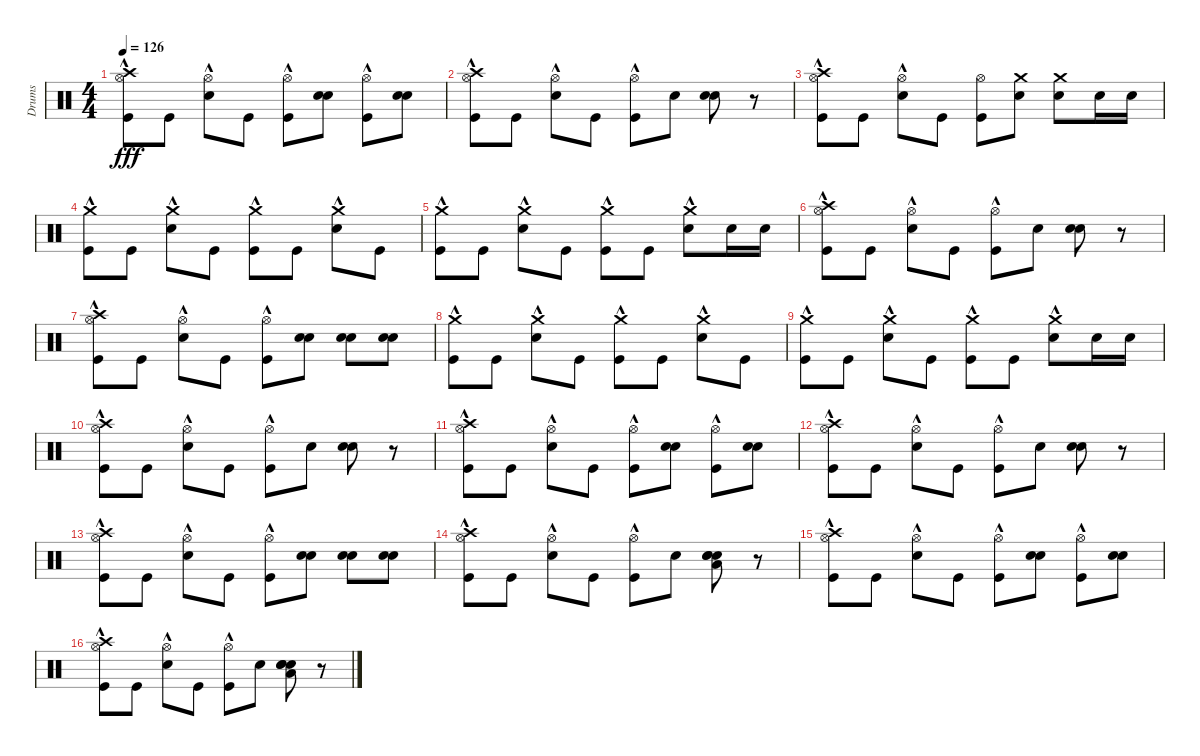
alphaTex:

\track ("Drums" "Drums") {instrument percussion}
\staff {score}
\articulation defaults
\ts (4 4)
\tempo 126
\clef neutral
\ks c
("Crash high (hit)"{hac} "Kick (hit)" "Hi-Hat (open)"{hac}).8{dy fff} "Kick (hit)".8 ("Electric Snare (hit)" "Hi-Hat (open)"{hac}).8 "Kick (hit)".8 ("Hi-Hat (open)"{hac} "Kick (hit)").8 ("Electric Snare (hit)" "Snare (hit) 2").8 ("Kick (hit)" "Hi-Hat (open)"{hac}).8 ("Electric Snare (hit)" "Snare (hit) 2").8 |
("Kick (hit)" "Crash high (hit)"{hac} "Hi-Hat (open)"{hac}).8 "Kick (hit)".8 ("Electric Snare (hit)" "Hi-Hat (open)"{hac}).8 "Kick (hit)".8 ("Hi-Hat (open)"{hac} "Kick (hit)").8 "Electric Snare (hit)".8 ("Snare (hit) 2" "Electric Snare (hit)").8 r.8 |
("Kick (hit)" "Crash high (hit)"{hac} "Hi-Hat (open)"{hac}).8 "Kick (hit)".8 ("Electric Snare (hit)" "Hi-Hat (open)"{hac}).8 "Kick (hit)".8 ("Kick (hit)" "Hi-Hat (open)").8 ("Electric Snare (hit)" "Crash medium (hit)").8 ("Electric Snare (hit)" "Crash medium (hit)").8 "Electric Snare (hit)".16 "Electric Snare (hit)".16 |
("Crash medium (hit)"{hac} "Kick (hit)").8 "Kick (hit)".8 ("Electric Snare (hit)" "Crash medium (hit)"{hac}).8 "Kick (hit)".8 ("Crash medium (hit)"{hac} "Kick (hit)").8 "Kick (hit)".8 ("Electric Snare (hit)" "Crash medium (hit)"{hac}).8 "Kick (hit)".8 |
("Crash medium (hit)"{hac} "Kick (hit)").8 "Kick (hit)".8 ("Crash medium (hit)"{hac} "Electric Snare (hit)").8 "Kick (hit)".8 ("Kick (hit)" "Crash medium (hit)"{hac}).8 "Kick (hit)".8 ("Crash medium (hit)"{hac} "Electric Snare (hit)").8 "Electric Snare (hit)".16 "Electric Snare (hit)".16 |
("Crash high (hit)"{hac} "Kick (hit)" "Hi-Hat (open)"{hac}).8 "Kick (hit)".8 ("Electric Snare (hit)" "Hi-Hat (open)"{hac}).8 "Kick (hit)".8 ("Hi-Hat (open)"{hac} "Kick (hit)").8 "Electric Snare (hit)".8 ("Electric Snare (hit)" "Snare (hit) 2").8 r.8 |
("Hi-Hat (open)"{hac} "Kick (hit)" "Crash high (hit)"{hac}).8 "Kick (hit)".8 ("Hi-Hat (open)"{hac} "Electric Snare (hit)").8 "Kick (hit)".8 ("Kick (hit)" "Hi-Hat (open)"{hac}).8 ("Snare (hit) 2" "Electric Snare (hit)").8 ("Snare (hit) 2" "Electric Snare (hit)").8 ("Snare (hit) 2" "Electric Snare (hit)").8 |
("Kick (hit)" "Crash medium (hit)"{hac}).8 "Kick (hit)".8 ("Crash medium (hit)"{hac} "Electric Snare (hit)").8 "Kick (hit)".8 ("Crash medium (hit)"{hac} "Kick (hit)").8 "Kick (hit)".8 ("Electric Snare (hit)" "Crash medium (hit)"{hac}).8 "Kick (hit)".8 |
("Crash medium (hit)"{hac} "Kick (hit)").8 "Kick (hit)".8 ("Crash medium (hit)"{hac} "Electric Snare (hit)").8 "Kick (hit)".8 ("Kick (hit)" "Crash medium (hit)"{hac}).8 "Kick (hit)".8 ("Electric Snare (hit)" "Crash medium (hit)"{hac}).8 "Electric Snare (hit)".16 "Electric Snare (hit)".16 |
("Kick (hit)" "Crash high (hit)"{hac} "Hi-Hat (open)"{hac}).8 "Kick (hit)".8 ("Hi-Hat (open)"{hac} "Electric Snare (hit)").8 "Kick (hit)".8 ("Kick (hit)" "Hi-Hat (open)"{hac}).8 "Electric Snare (hit)".8 ("Electric Snare (hit)" "Snare (hit) 2").8 r.8 |
("Hi-Hat (open)"{hac} "Crash high (hit)"{hac} "Kick (hit)").8 "Kick (hit)".8 ("Electric Snare (hit)" "Hi-Hat (open)"{hac}).8 "Kick (hit)".8 ("Hi-Hat (open)"{hac} "Kick (hit)").8 ("Electric Snare (hit)" "Snare (hit) 2").8 ("Kick (hit)" "Hi-Hat (open)"{hac}).8 ("Snare (hit) 2" "Electric Snare (hit)").8 |
("Crash high (hit)"{hac} "Hi-Hat (open)"{hac} "Kick (hit)").8 "Kick (hit)".8 ("Electric Snare (hit)" "Hi-Hat (open)"{hac}).8 "Kick (hit)".8 ("Kick (hit)" "Hi-Hat (open)"{hac}).8 "Electric Snare (hit)".8 ("Electric Snare (hit)" "Snare (hit) 2").8 r.8 |
("Hi-Hat (open)"{hac} "Crash high (hit)"{hac} "Kick (hit)").8 "Kick (hit)".8 ("Electric Snare (hit)" "Hi-Hat (open)"{hac}).8 "Kick (hit)".8 ("Hi-Hat (open)"{hac} "Kick (hit)").8 ("Electric Snare (hit)" "Snare (hit) 2").8 ("Electric Snare (hit)" "Snare (hit) 2").8 ("Snare (hit) 2" "Electric Snare (hit)").8 |
("Kick (hit)" "Hi-Hat (open)"{hac} "Crash high (hit)"{hac}).8 "Kick (hit)".8 ("Electric Snare (hit)" "Hi-Hat (open)"{hac}).8 "Kick (hit)".8 ("Kick (hit)" "Hi-Hat (open)"{hac}).8 "Electric Snare (hit)".8 ("Low Floor Tom (hit)" "Snare (hit) 2" "Electric Snare (hit)" "Electric Snare (hit)").8 r.8 |
("Kick (hit)" "Hi-Hat (open)"{hac} "Crash high (hit)"{hac}).8 "Kick (hit)".8 ("Hi-Hat (open)"{hac} "Electric Snare (hit)").8 "Kick (hit)".8 ("Hi-Hat (open)"{hac} "Kick (hit)").8 ("Electric Snare (hit)" "Snare (hit) 2").8 ("Kick (hit)" "Hi-Hat (open)"{hac}).8 ("Electric Snare (hit)" "Snare (hit) 2").8 |
("Kick (hit)" "Hi-Hat (open)"{hac} "Crash high (hit)"{hac}).8 "Kick (hit)".8 ("Electric Snare (hit)" "Hi-Hat (open)"{hac}).8 "Kick (hit)".8 ("Hi-Hat (open)"{hac} "Kick (hit)").8 "Electric Snare (hit)".8 ("Low Floor Tom (hit)" "Snare (hit) 2" "Electric Snare (hit)" "Electric Snare (hit)").8 r.8
